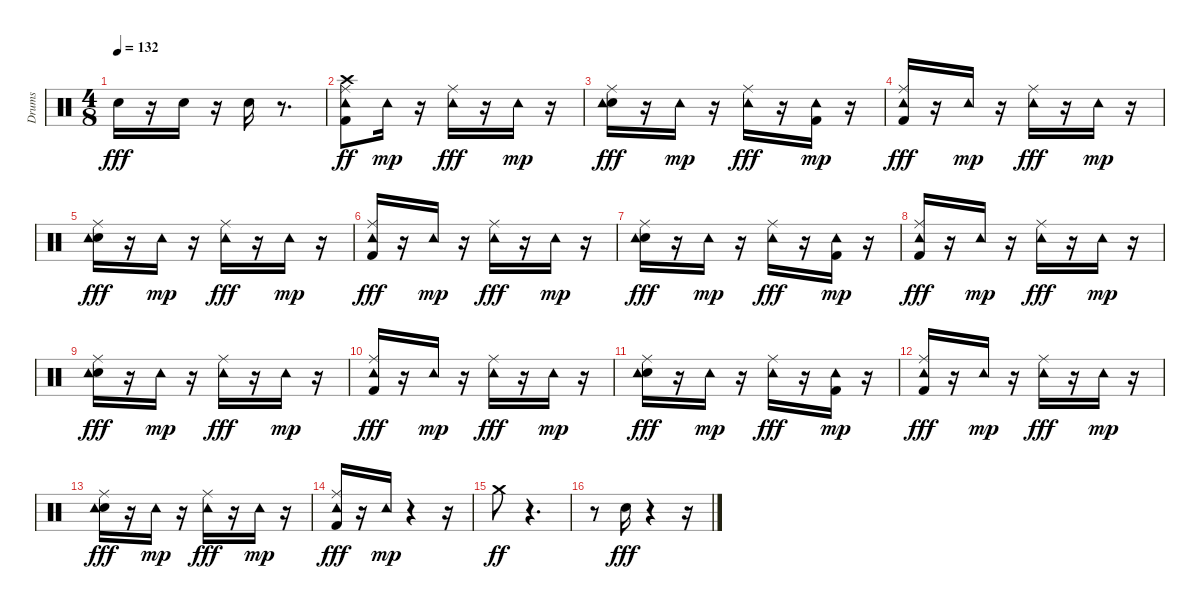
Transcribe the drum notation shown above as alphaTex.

\track ("Drums" "Drums") {instrument percussion}
\staff {score}
\articulation defaults
\ts (4 8)
\tempo 132
\clef neutral
\ks c "Snare (hit) 2".16{dy fff}
r.16 "Snare (hit) 2".16 r.16 "Snare (hit) 2".16 r.8{d} |
("Kick (hit) 2" "Ride (middle)" "Tambourine (hit)" "Crash high (hit)").8{dy ff} "Tambourine (hit)".16{dy mp} r.16 ("Ride (middle)" "Tambourine (hit)").16{dy fff} r.16 "Tambourine (hit)".16{dy mp} r.16 |
("Snare (hit) 2" "Ride (middle)" "Tambourine (hit)").16{dy fff} r.16 "Tambourine (hit)".16{dy mp} r.16 ("Ride (middle)" "Tambourine (hit)").16{dy fff} r.16 ("Kick (hit) 2" "Tambourine (hit)").16{dy mp} r.16 |
("Kick (hit) 2" "Ride (middle)" "Tambourine (hit)").16{dy fff} r.16 "Tambourine (hit)".16{dy mp} r.16 ("Ride (middle)" "Tambourine (hit)").16{dy fff} r.16 "Tambourine (hit)".16{dy mp} r.16 |
("Snare (hit) 2" "Ride (middle)" "Tambourine (hit)").16{dy fff} r.16 "Tambourine (hit)".16{dy mp} r.16 ("Ride (middle)" "Tambourine (hit)").16{dy fff} r.16 "Tambourine (hit)".16{dy mp} r.16 |
("Kick (hit) 2" "Ride (middle)" "Tambourine (hit)").16{dy fff} r.16 "Tambourine (hit)".16{dy mp} r.16 ("Ride (middle)" "Tambourine (hit)").16{dy fff} r.16 "Tambourine (hit)".16{dy mp} r.16 |
("Snare (hit) 2" "Ride (middle)" "Tambourine (hit)").16{dy fff} r.16 "Tambourine (hit)".16{dy mp} r.16 ("Ride (middle)" "Tambourine (hit)").16{dy fff} r.16 ("Kick (hit) 2" "Tambourine (hit)").16{dy mp} r.16 |
("Kick (hit) 2" "Ride (middle)" "Tambourine (hit)").16{dy fff} r.16 "Tambourine (hit)".16{dy mp} r.16 ("Ride (middle)" "Tambourine (hit)").16{dy fff} r.16 "Tambourine (hit)".16{dy mp} r.16 |
("Snare (hit) 2" "Ride (middle)" "Tambourine (hit)").16{dy fff} r.16 "Tambourine (hit)".16{dy mp} r.16 ("Ride (middle)" "Tambourine (hit)").16{dy fff} r.16 "Tambourine (hit)".16{dy mp} r.16 |
("Kick (hit) 2" "Ride (middle)" "Tambourine (hit)").16{dy fff} r.16 "Tambourine (hit)".16{dy mp} r.16 ("Ride (middle)" "Tambourine (hit)").16{dy fff} r.16 "Tambourine (hit)".16{dy mp} r.16 |
("Snare (hit) 2" "Ride (middle)" "Tambourine (hit)").16{dy fff} r.16 "Tambourine (hit)".16{dy mp} r.16 ("Ride (middle)" "Tambourine (hit)").16{dy fff} r.16 ("Kick (hit) 2" "Tambourine (hit)").16{dy mp} r.16 |
("Kick (hit) 2" "Ride (middle)" "Tambourine (hit)").16{dy fff} r.16 "Tambourine (hit)".16{dy mp} r.16 ("Ride (middle)" "Tambourine (hit)").16{dy fff} r.16 "Tambourine (hit)".16{dy mp} r.16 |
("Snare (hit) 2" "Ride (middle)" "Tambourine (hit)").16{dy fff} r.16 "Tambourine (hit)".16{dy mp} r.16 ("Ride (middle)" "Tambourine (hit)").16{dy fff} r.16 "Tambourine (hit)".16{dy mp} r.16 |
("Kick (hit) 2" "Ride (middle)" "Tambourine (hit)").16{dy fff} r.16 "Tambourine (hit)".16{dy mp} r.4 r.16 |
"Crash medium (hit)".8{dy ff} r.4{d} |
r.8 "Snare (hit) 2".16{dy fff} r.4 r.16
